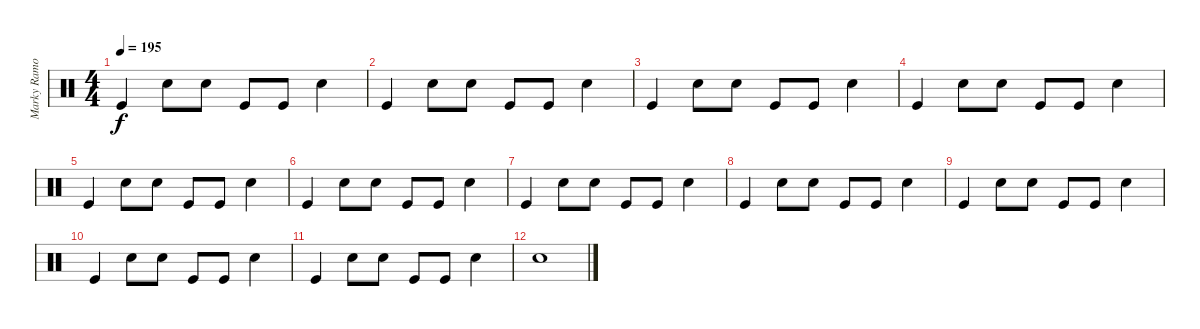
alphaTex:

\track ("Marky Ramone" "Marky Ramo") {instrument percussion}
\staff {score}
\articulation defaults
\ts (4 4)
\tempo 195
\clef neutral
\ks c "Kick (hit)".4{dy f} "Electric Snare (hit)".8 "Electric Snare (hit)".8 "Kick (hit)".8 "Kick (hit)".8 "Electric Snare (hit)".4
|
"Kick (hit)".4 "Electric Snare (hit)".8 "Electric Snare (hit)".8 "Kick (hit)".8 "Kick (hit)".8 "Electric Snare (hit)".4 |
"Kick (hit)".4 "Electric Snare (hit)".8 "Electric Snare (hit)".8 "Kick (hit)".8 "Kick (hit)".8 "Electric Snare (hit)".4 |
"Kick (hit)".4 "Electric Snare (hit)".8 "Electric Snare (hit)".8 "Kick (hit)".8 "Kick (hit)".8 "Electric Snare (hit)".4 |
"Kick (hit)".4 "Electric Snare (hit)".8 "Electric Snare (hit)".8 "Kick (hit)".8 "Kick (hit)".8 "Electric Snare (hit)".4 |
"Kick (hit)".4 "Electric Snare (hit)".8 "Electric Snare (hit)".8 "Kick (hit)".8 "Kick (hit)".8 "Electric Snare (hit)".4 |
"Kick (hit)".4 "Electric Snare (hit)".8 "Electric Snare (hit)".8 "Kick (hit)".8 "Kick (hit)".8 "Electric Snare (hit)".4 |
"Kick (hit)".4 "Electric Snare (hit)".8 "Electric Snare (hit)".8 "Kick (hit)".8 "Kick (hit)".8 "Electric Snare (hit)".4 |
"Kick (hit)".4 "Electric Snare (hit)".8 "Electric Snare (hit)".8 "Kick (hit)".8 "Kick (hit)".8 "Electric Snare (hit)".4 |
"Kick (hit)".4 "Electric Snare (hit)".8 "Electric Snare (hit)".8 "Kick (hit)".8 "Kick (hit)".8 "Electric Snare (hit)".4 |
"Kick (hit)".4 "Electric Snare (hit)".8 "Electric Snare (hit)".8 "Kick (hit)".8 "Kick (hit)".8 "Electric Snare (hit)".4 |
"Electric Snare (hit)".1
